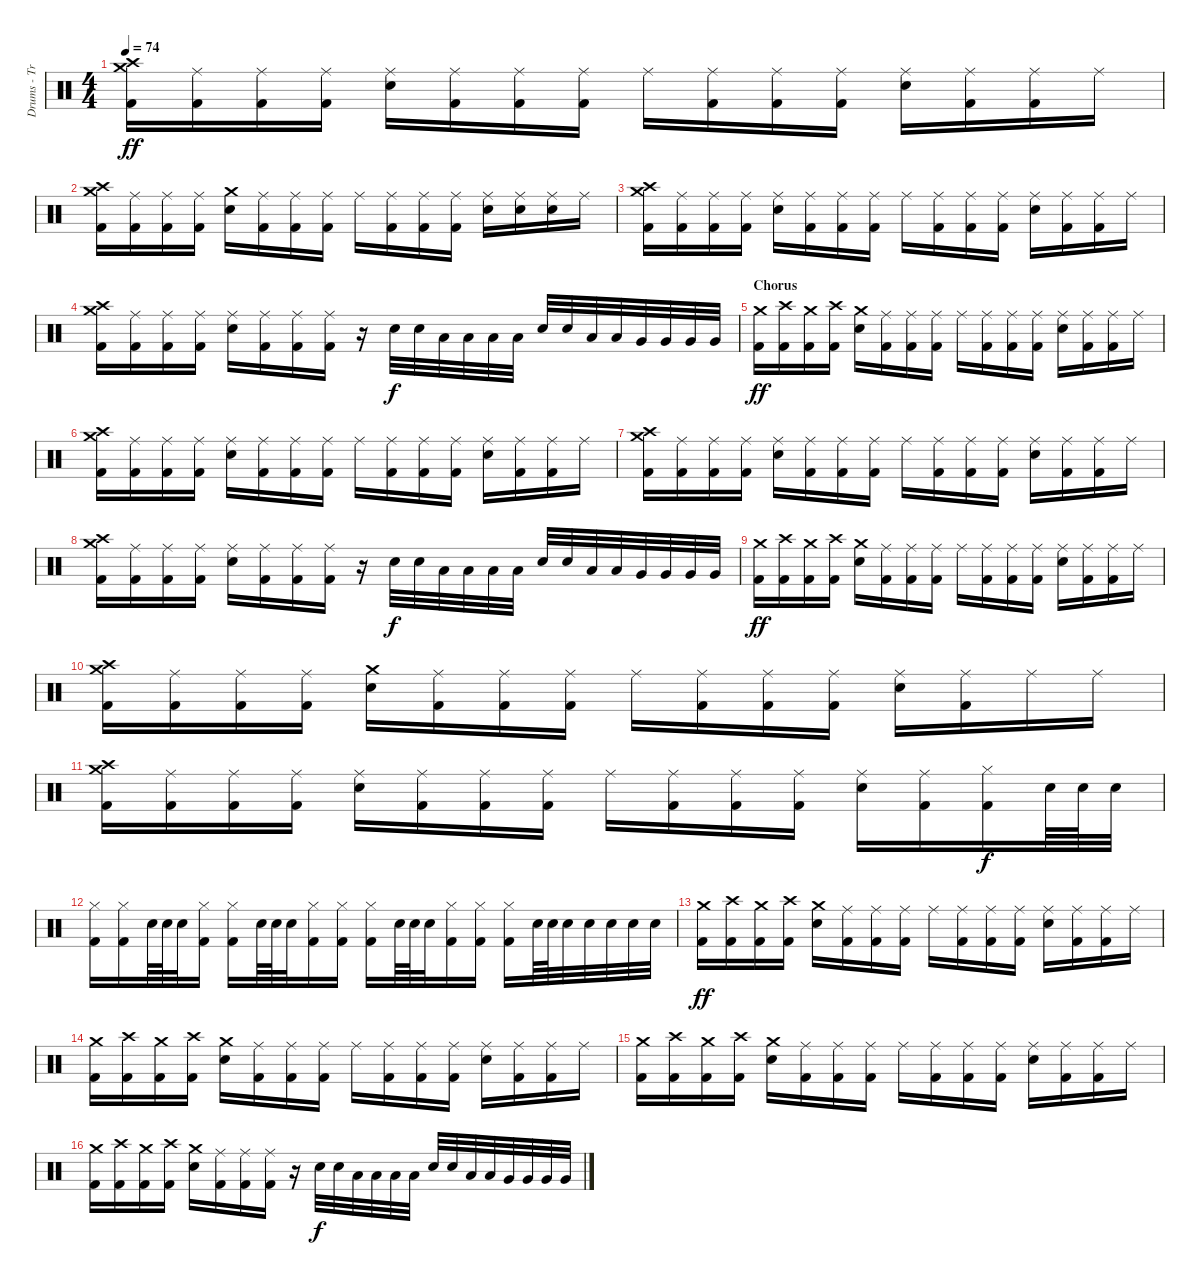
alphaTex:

\track ("Drums - Travis" "Drums - Tr") {instrument percussion}
\staff {score}
\articulation defaults
\ts (4 4)
\tempo 74
\clef neutral
\ks c
("Crash medium (hit)" "Crash high (hit)" "Kick (hit) 2").16{dy ff} ("Ride (middle)" "Kick (hit) 2").16 ("Ride (middle)" "Kick (hit) 2").16 ("Ride (middle)" "Kick (hit) 2").16 ("Ride (middle)" "Electric Snare (hit)").16 ("Ride (middle)" "Kick (hit) 2").16 ("Ride (middle)" "Kick (hit) 2").16 ("Ride (middle)" "Kick (hit) 2").16 "Ride (middle)".16 ("Ride (middle)" "Kick (hit) 2").16 ("Ride (middle)" "Kick (hit) 2").16 ("Ride (middle)" "Kick (hit) 2").16 ("Ride (middle)" "Electric Snare (hit)").16 ("Ride (middle)" "Kick (hit) 2").16 ("Ride (middle)" "Kick (hit) 2").16 "Ride (middle)".16 |
("Crash medium (hit)" "Crash high (hit)" "Kick (hit) 2").16 ("Ride (middle)" "Kick (hit) 2").16 ("Ride (middle)" "Kick (hit) 2").16 ("Ride (middle)" "Kick (hit) 2").16 ("Crash medium (hit)" "Electric Snare (hit)").16 ("Ride (middle)" "Kick (hit) 2").16 ("Ride (middle)" "Kick (hit) 2").16 ("Ride (middle)" "Kick (hit) 2").16 "Ride (middle)".16 ("Ride (middle)" "Kick (hit) 2").16 ("Ride (middle)" "Kick (hit) 2").16 ("Ride (middle)" "Kick (hit) 2").16 ("Ride (middle)" "Electric Snare (hit)").16 ("Ride (middle)" "Electric Snare (hit)").16 ("Ride (middle)" "Electric Snare (hit)").16 "Ride (middle)".16 |
("Crash medium (hit)" "Crash high (hit)" "Kick (hit) 2").16 ("Ride (middle)" "Kick (hit) 2").16 ("Ride (middle)" "Kick (hit) 2").16 ("Ride (middle)" "Kick (hit) 2").16 ("Ride (middle)" "Electric Snare (hit)").16 ("Ride (middle)" "Kick (hit) 2").16 ("Ride (middle)" "Kick (hit) 2").16 ("Ride (middle)" "Kick (hit) 2").16 "Ride (middle)".16 ("Ride (middle)" "Kick (hit) 2").16 ("Ride (middle)" "Kick (hit) 2").16 ("Ride (middle)" "Kick (hit) 2").16 ("Ride (middle)" "Electric Snare (hit)").16 ("Ride (middle)" "Kick (hit) 2").16 ("Ride (middle)" "Kick (hit) 2").16 "Ride (middle)".16 |
("Crash medium (hit)" "Crash high (hit)" "Kick (hit) 2").16 ("Ride (middle)" "Kick (hit) 2").16 ("Ride (middle)" "Kick (hit) 2").16 ("Ride (middle)" "Kick (hit) 2").16 ("Ride (middle)" "Electric Snare (hit)").16 ("Ride (middle)" "Kick (hit) 2").16 ("Ride (middle)" "Kick (hit) 2").16 ("Ride (middle)" "Kick (hit) 2").16 r.16 "Electric Snare (hit)".32{dy f} "Electric Snare (hit)".32 "Low Tom (hit)".32 "Low Tom (hit)".32 "Low Tom (hit)".32 "Low Tom (hit)".32 "Electric Snare (hit)".32 "Electric Snare (hit)".32 "Low Tom (hit)".32 "Low Tom (hit)".32 "Very Low Tom (hit)".32 "Very Low Tom (hit)".32 "Very Low Tom (hit)".32 "Very Low Tom (hit)".32 |
\section ("" "Chorus")
("Crash medium (hit)" "Kick (hit) 2").16{dy ff} ("Crash high (hit)" "Kick (hit) 2").16 ("Crash medium (hit)" "Kick (hit) 2").16 ("Crash high (hit)" "Kick (hit) 2").16 ("Crash medium (hit)" "Electric Snare (hit)").16 ("Ride (middle)" "Kick (hit) 2").16 ("Ride (middle)" "Kick (hit) 2").16 ("Ride (middle)" "Kick (hit) 2").16 "Ride (middle)".16 ("Ride (middle)" "Kick (hit) 2").16 ("Ride (middle)" "Kick (hit) 2").16 ("Ride (middle)" "Kick (hit) 2").16 ("Ride (middle)" "Electric Snare (hit)").16 ("Ride (middle)" "Kick (hit) 2").16 ("Ride (middle)" "Kick (hit) 2").16 "Ride (middle)".16 |
("Crash medium (hit)" "Crash high (hit)" "Kick (hit) 2").16 ("Ride (middle)" "Kick (hit) 2").16 ("Ride (middle)" "Kick (hit) 2").16 ("Ride (middle)" "Kick (hit) 2").16 ("Ride (middle)" "Electric Snare (hit)").16 ("Ride (middle)" "Kick (hit) 2").16 ("Ride (middle)" "Kick (hit) 2").16 ("Ride (middle)" "Kick (hit) 2").16 "Ride (middle)".16 ("Ride (middle)" "Kick (hit) 2").16 ("Ride (middle)" "Kick (hit) 2").16 ("Ride (middle)" "Kick (hit) 2").16 ("Ride (middle)" "Electric Snare (hit)").16 ("Ride (middle)" "Kick (hit) 2").16 ("Ride (middle)" "Kick (hit) 2").16 "Ride (middle)".16 |
("Crash medium (hit)" "Crash high (hit)" "Kick (hit) 2").16 ("Ride (middle)" "Kick (hit) 2").16 ("Ride (middle)" "Kick (hit) 2").16 ("Ride (middle)" "Kick (hit) 2").16 ("Ride (middle)" "Electric Snare (hit)").16 ("Ride (middle)" "Kick (hit) 2").16 ("Ride (middle)" "Kick (hit) 2").16 ("Ride (middle)" "Kick (hit) 2").16 "Ride (middle)".16 ("Ride (middle)" "Kick (hit) 2").16 ("Ride (middle)" "Kick (hit) 2").16 ("Ride (middle)" "Kick (hit) 2").16 ("Ride (middle)" "Electric Snare (hit)").16 ("Ride (middle)" "Kick (hit) 2").16 ("Ride (middle)" "Kick (hit) 2").16 "Ride (middle)".16 |
("Crash medium (hit)" "Crash high (hit)" "Kick (hit) 2").16 ("Ride (middle)" "Kick (hit) 2").16 ("Ride (middle)" "Kick (hit) 2").16 ("Ride (middle)" "Kick (hit) 2").16 ("Ride (middle)" "Electric Snare (hit)").16 ("Ride (middle)" "Kick (hit) 2").16 ("Ride (middle)" "Kick (hit) 2").16 ("Ride (middle)" "Kick (hit) 2").16 r.16 "Electric Snare (hit)".32{dy f} "Electric Snare (hit)".32 "Low Tom (hit)".32 "Low Tom (hit)".32 "Low Tom (hit)".32 "Low Tom (hit)".32 "Electric Snare (hit)".32 "Electric Snare (hit)".32 "Low Tom (hit)".32 "Low Tom (hit)".32 "Very Low Tom (hit)".32 "Very Low Tom (hit)".32 "Very Low Tom (hit)".32 "Very Low Tom (hit)".32 |
("Crash medium (hit)" "Kick (hit) 2").16{dy ff} ("Crash high (hit)" "Kick (hit) 2").16 ("Crash medium (hit)" "Kick (hit) 2").16 ("Crash high (hit)" "Kick (hit) 2").16 ("Crash medium (hit)" "Electric Snare (hit)").16 ("Ride (middle)" "Kick (hit) 2").16 ("Ride (middle)" "Kick (hit) 2").16 ("Ride (middle)" "Kick (hit) 2").16 "Ride (middle)".16 ("Ride (middle)" "Kick (hit) 2").16 ("Ride (middle)" "Kick (hit) 2").16 ("Ride (middle)" "Kick (hit) 2").16 ("Ride (middle)" "Electric Snare (hit)").16 ("Ride (middle)" "Kick (hit) 2").16 ("Ride (middle)" "Kick (hit) 2").16 "Ride (middle)".16 |
("Crash medium (hit)" "Crash high (hit)" "Kick (hit) 2").16 ("Ride (middle)" "Kick (hit) 2").16 ("Ride (middle)" "Kick (hit) 2").16 ("Ride (middle)" "Kick (hit) 2").16 ("Crash medium (hit)" "Electric Snare (hit)").16 ("Ride (middle)" "Kick (hit) 2").16 ("Ride (middle)" "Kick (hit) 2").16 ("Ride (middle)" "Kick (hit) 2").16 "Ride (middle)".16 ("Ride (middle)" "Kick (hit) 2").16 ("Ride (middle)" "Kick (hit) 2").16 ("Ride (middle)" "Kick (hit) 2").16 ("Ride (middle)" "Electric Snare (hit)").16 ("Ride (middle)" "Kick (hit) 2").16 "Ride (middle)".16 "Ride (middle)".16 |
("Crash medium (hit)" "Crash high (hit)" "Kick (hit) 2").16 ("Ride (middle)" "Kick (hit) 2").16 ("Ride (middle)" "Kick (hit) 2").16 ("Ride (middle)" "Kick (hit) 2").16 ("Ride (middle)" "Electric Snare (hit)").16 ("Ride (middle)" "Kick (hit) 2").16 ("Ride (middle)" "Kick (hit) 2").16 ("Ride (middle)" "Kick (hit) 2").16 "Ride (middle)".16 ("Ride (middle)" "Kick (hit) 2").16 ("Ride (middle)" "Kick (hit) 2").16 ("Ride (middle)" "Kick (hit) 2").16 ("Ride (middle)" "Electric Snare (hit)").16 ("Ride (middle)" "Kick (hit) 2").16 ("Hi-Hat (closed)" "Kick (hit) 2").16{dy f} "Electric Snare (hit)".64 "Electric Snare (hit)".64 "Electric Snare (hit)".32 |
("Hi-Hat (closed)" "Kick (hit) 2").16 ("Hi-Hat (closed)" "Kick (hit) 2").16 "Electric Snare (hit)".64 "Electric Snare (hit)".64 "Electric Snare (hit)".32 ("Hi-Hat (closed)" "Kick (hit) 2").16 ("Hi-Hat (closed)" "Kick (hit) 2").16 "Electric Snare (hit)".64 "Electric Snare (hit)".64 "Electric Snare (hit)".32 ("Hi-Hat (closed)" "Kick (hit) 2").16 ("Hi-Hat (closed)" "Kick (hit) 2").16 ("Hi-Hat (closed)" "Kick (hit) 2").16 "Electric Snare (hit)".64 "Electric Snare (hit)".64 "Electric Snare (hit)".32 ("Hi-Hat (closed)" "Kick (hit) 2").16 ("Hi-Hat (closed)" "Kick (hit) 2").16 ("Hi-Hat (closed)" "Kick (hit) 2").16 "Electric Snare (hit)".64 "Electric Snare (hit)".64 "Electric Snare (hit)".32 "Electric Snare (hit)".32 "Electric Snare (hit)".32 "Electric Snare (hit)".32 "Electric Snare (hit)".32 |
("Crash medium (hit)" "Kick (hit) 2").16{dy ff} ("Crash high (hit)" "Kick (hit) 2").16 ("Crash medium (hit)" "Kick (hit) 2").16 ("Crash high (hit)" "Kick (hit) 2").16 ("Crash medium (hit)" "Electric Snare (hit)").16 ("Ride (middle)" "Kick (hit) 2").16 ("Ride (middle)" "Kick (hit) 2").16 ("Ride (middle)" "Kick (hit) 2").16 "Ride (middle)".16 ("Ride (middle)" "Kick (hit) 2").16 ("Ride (middle)" "Kick (hit) 2").16 ("Ride (middle)" "Kick (hit) 2").16 ("Ride (middle)" "Electric Snare (hit)").16 ("Ride (middle)" "Kick (hit) 2").16 ("Ride (middle)" "Kick (hit) 2").16 "Ride (middle)".16 |
("Crash medium (hit)" "Kick (hit) 2").16 ("Crash high (hit)" "Kick (hit) 2").16 ("Crash medium (hit)" "Kick (hit) 2").16 ("Crash high (hit)" "Kick (hit) 2").16 ("Crash medium (hit)" "Electric Snare (hit)").16 ("Ride (middle)" "Kick (hit) 2").16 ("Ride (middle)" "Kick (hit) 2").16 ("Ride (middle)" "Kick (hit) 2").16 "Ride (middle)".16 ("Ride (middle)" "Kick (hit) 2").16 ("Ride (middle)" "Kick (hit) 2").16 ("Ride (middle)" "Kick (hit) 2").16 ("Ride (middle)" "Electric Snare (hit)").16 ("Ride (middle)" "Kick (hit) 2").16 ("Ride (middle)" "Kick (hit) 2").16 "Ride (middle)".16 |
("Crash medium (hit)" "Kick (hit) 2").16 ("Crash high (hit)" "Kick (hit) 2").16 ("Crash medium (hit)" "Kick (hit) 2").16 ("Crash high (hit)" "Kick (hit) 2").16 ("Crash medium (hit)" "Electric Snare (hit)").16 ("Ride (middle)" "Kick (hit) 2").16 ("Ride (middle)" "Kick (hit) 2").16 ("Ride (middle)" "Kick (hit) 2").16 "Ride (middle)".16 ("Ride (middle)" "Kick (hit) 2").16 ("Ride (middle)" "Kick (hit) 2").16 ("Ride (middle)" "Kick (hit) 2").16 ("Ride (middle)" "Electric Snare (hit)").16 ("Ride (middle)" "Kick (hit) 2").16 ("Ride (middle)" "Kick (hit) 2").16 "Ride (middle)".16 |
("Crash medium (hit)" "Kick (hit) 2").16 ("Crash high (hit)" "Kick (hit) 2").16 ("Crash medium (hit)" "Kick (hit) 2").16 ("Crash high (hit)" "Kick (hit) 2").16 ("Crash medium (hit)" "Electric Snare (hit)").16 ("Ride (middle)" "Kick (hit) 2").16 ("Ride (middle)" "Kick (hit) 2").16 ("Ride (middle)" "Kick (hit) 2").16 r.16 "Electric Snare (hit)".32{dy f} "Electric Snare (hit)".32 "Low Tom (hit)".32 "Low Tom (hit)".32 "Low Tom (hit)".32 "Low Tom (hit)".32 "Electric Snare (hit)".32 "Electric Snare (hit)".32 "Low Tom (hit)".32 "Low Tom (hit)".32 "Very Low Tom (hit)".32 "Very Low Tom (hit)".32 "Very Low Tom (hit)".32 "Very Low Tom (hit)".32
